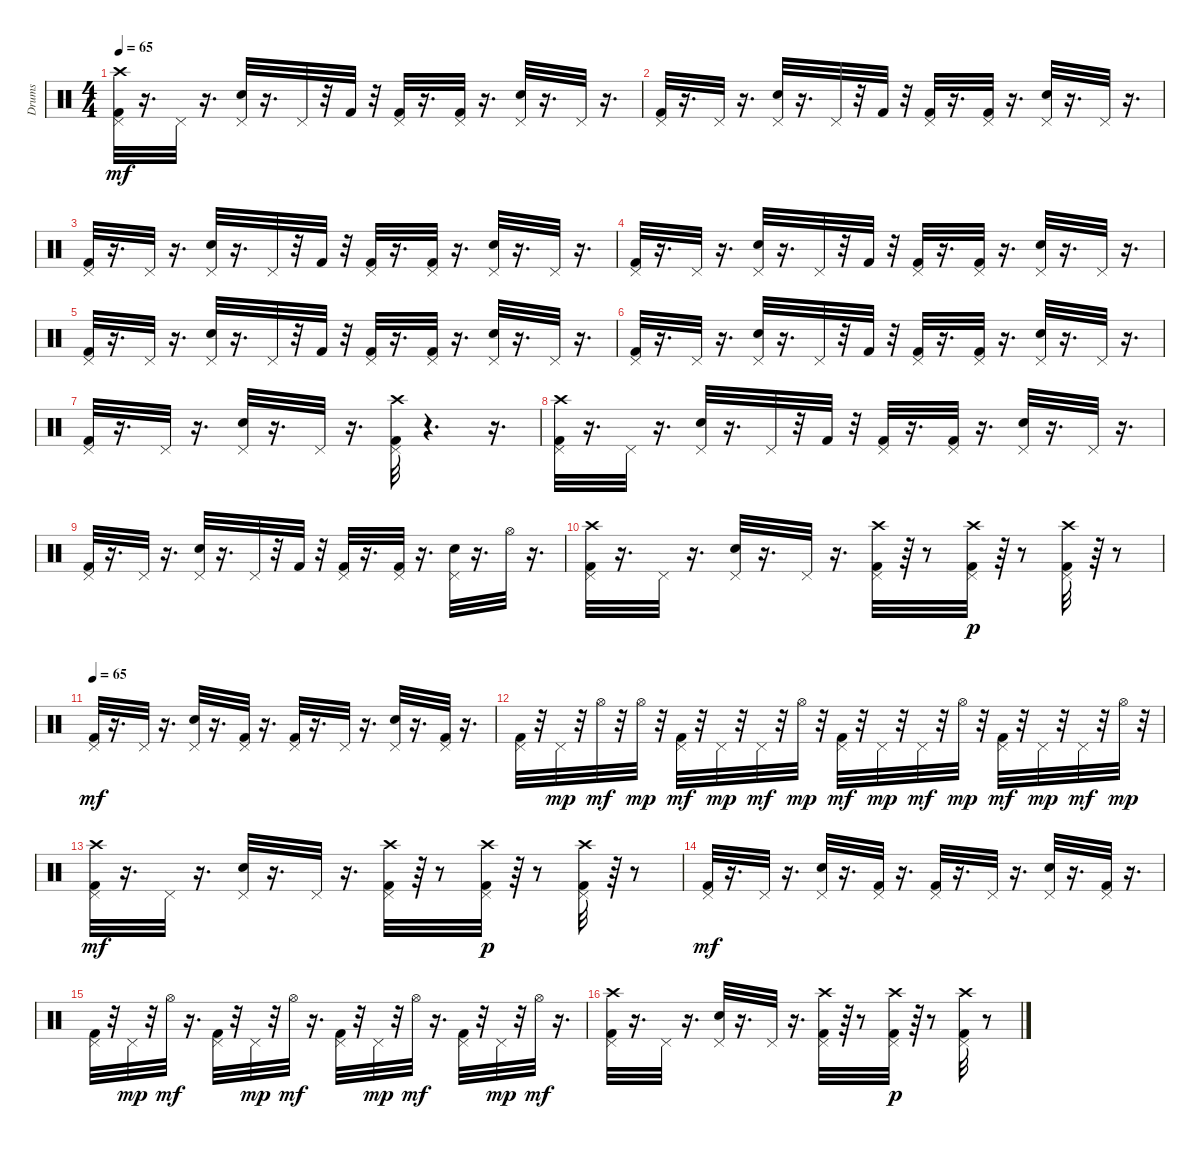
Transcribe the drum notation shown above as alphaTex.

\track ("Drums" "Drums") {instrument percussion}
\staff {score}
\articulation defaults
\ts (4 4)
\tempo 65
\clef neutral
\ks c
("Crash high (hit)" "Pedal Hi-Hat (hit)" "Kick (hit) 2").32{dy mf} r.16{d} "Pedal Hi-Hat (hit)".32 r.16{d} ("Snare (hit) 2" "Pedal Hi-Hat (hit)").32 r.16{d} "Pedal Hi-Hat (hit)".32 r.32 "Kick (hit) 2".32 r.32 ("Pedal Hi-Hat (hit)" "Kick (hit) 2").32 r.16{d} ("Pedal Hi-Hat (hit)" "Kick (hit) 2").32 r.16{d} ("Pedal Hi-Hat (hit)" "Snare (hit) 2").32 r.16{d} "Pedal Hi-Hat (hit)".32 r.16{d} |
("Pedal Hi-Hat (hit)" "Kick (hit) 2").32 r.16{d} "Pedal Hi-Hat (hit)".32 r.16{d} ("Snare (hit) 2" "Pedal Hi-Hat (hit)").32 r.16{d} "Pedal Hi-Hat (hit)".32 r.32 "Kick (hit) 2".32 r.32 ("Pedal Hi-Hat (hit)" "Kick (hit) 2").32 r.16{d} ("Pedal Hi-Hat (hit)" "Kick (hit) 2").32 r.16{d} ("Pedal Hi-Hat (hit)" "Snare (hit) 2").32 r.16{d} "Pedal Hi-Hat (hit)".32 r.16{d} |
("Pedal Hi-Hat (hit)" "Kick (hit) 2").32 r.16{d} "Pedal Hi-Hat (hit)".32 r.16{d} ("Snare (hit) 2" "Pedal Hi-Hat (hit)").32 r.16{d} "Pedal Hi-Hat (hit)".32 r.32 "Kick (hit) 2".32 r.32 ("Pedal Hi-Hat (hit)" "Kick (hit) 2").32 r.16{d} ("Pedal Hi-Hat (hit)" "Kick (hit) 2").32 r.16{d} ("Pedal Hi-Hat (hit)" "Snare (hit) 2").32 r.16{d} "Pedal Hi-Hat (hit)".32 r.16{d} |
("Pedal Hi-Hat (hit)" "Kick (hit) 2").32 r.16{d} "Pedal Hi-Hat (hit)".32 r.16{d} ("Snare (hit) 2" "Pedal Hi-Hat (hit)").32 r.16{d} "Pedal Hi-Hat (hit)".32 r.32 "Kick (hit) 2".32 r.32 ("Pedal Hi-Hat (hit)" "Kick (hit) 2").32 r.16{d} ("Pedal Hi-Hat (hit)" "Kick (hit) 2").32 r.16{d} ("Pedal Hi-Hat (hit)" "Snare (hit) 2").32 r.16{d} "Pedal Hi-Hat (hit)".32 r.16{d} |
("Pedal Hi-Hat (hit)" "Kick (hit) 2").32 r.16{d} "Pedal Hi-Hat (hit)".32 r.16{d} ("Snare (hit) 2" "Pedal Hi-Hat (hit)").32 r.16{d} "Pedal Hi-Hat (hit)".32 r.32 "Kick (hit) 2".32 r.32 ("Pedal Hi-Hat (hit)" "Kick (hit) 2").32 r.16{d} ("Pedal Hi-Hat (hit)" "Kick (hit) 2").32 r.16{d} ("Pedal Hi-Hat (hit)" "Snare (hit) 2").32 r.16{d} "Pedal Hi-Hat (hit)".32 r.16{d} |
("Pedal Hi-Hat (hit)" "Kick (hit) 2").32 r.16{d} "Pedal Hi-Hat (hit)".32 r.16{d} ("Snare (hit) 2" "Pedal Hi-Hat (hit)").32 r.16{d} "Pedal Hi-Hat (hit)".32 r.32 "Kick (hit) 2".32 r.32 ("Pedal Hi-Hat (hit)" "Kick (hit) 2").32 r.16{d} ("Pedal Hi-Hat (hit)" "Kick (hit) 2").32 r.16{d} ("Pedal Hi-Hat (hit)" "Snare (hit) 2").32 r.16{d} "Pedal Hi-Hat (hit)".32 r.16{d} |
("Pedal Hi-Hat (hit)" "Kick (hit) 2").32 r.16{d} "Pedal Hi-Hat (hit)".32 r.16{d} ("Snare (hit) 2" "Pedal Hi-Hat (hit)").32 r.16{d} "Pedal Hi-Hat (hit)".32 r.16{d} ("Crash high (hit)" "Pedal Hi-Hat (hit)" "Kick (hit) 2").32 r.4{d} r.16{d} |
("Crash high (hit)" "Pedal Hi-Hat (hit)" "Kick (hit) 2").32 r.16{d} "Pedal Hi-Hat (hit)".32 r.16{d} ("Snare (hit) 2" "Pedal Hi-Hat (hit)").32 r.16{d} "Pedal Hi-Hat (hit)".32 r.32 "Kick (hit) 2".32 r.32 ("Pedal Hi-Hat (hit)" "Kick (hit) 2").32 r.16{d} ("Pedal Hi-Hat (hit)" "Kick (hit) 2").32 r.16{d} ("Pedal Hi-Hat (hit)" "Snare (hit) 2").32 r.16{d} "Pedal Hi-Hat (hit)".32 r.16{d} |
("Pedal Hi-Hat (hit)" "Kick (hit) 2").32 r.16{d} "Pedal Hi-Hat (hit)".32 r.16{d} ("Snare (hit) 2" "Pedal Hi-Hat (hit)").32 r.16{d} "Pedal Hi-Hat (hit)".32 r.32 "Kick (hit) 2".32 r.32 ("Pedal Hi-Hat (hit)" "Kick (hit) 2").32 r.16{d} ("Pedal Hi-Hat (hit)" "Kick (hit) 2").32 r.16{d} ("Pedal Hi-Hat (hit)" "Snare (hit) 2").32 r.16{d} "Hi-Hat (open)".32 r.16{d} |
("Crash high (hit)" "Pedal Hi-Hat (hit)" "Kick (hit) 2").32 r.16{d} "Pedal Hi-Hat (hit)".32 r.16{d} ("Snare (hit) 2" "Pedal Hi-Hat (hit)").32 r.16{d} "Pedal Hi-Hat (hit)".32 r.16{d} ("Crash high (hit)" "Pedal Hi-Hat (hit)" "Kick (hit) 2").32 r.64 r.8 ("Kick (hit) 2" "Pedal Hi-Hat (hit)" "Crash high (hit)").32{dy p} r.64 r.8 ("Kick (hit) 2" "Pedal Hi-Hat (hit)" "Crash high (hit)").32 r.64 r.8 |
\tempo 65
("Pedal Hi-Hat (hit)" "Kick (hit) 2").32{dy mf} r.16{d} "Pedal Hi-Hat (hit)".32 r.16{d} ("Snare (hit) 2" "Pedal Hi-Hat (hit)").32 r.16{d} ("Kick (hit) 2" "Pedal Hi-Hat (hit)").32 r.16{d} ("Pedal Hi-Hat (hit)" "Kick (hit) 2").32 r.16{d} "Pedal Hi-Hat (hit)".32 r.16{d} ("Snare (hit) 2" "Pedal Hi-Hat (hit)").32 r.16{d} ("Kick (hit) 2" "Pedal Hi-Hat (hit)").32 r.16{d} |
("Kick (hit) 2" "Pedal Hi-Hat (hit)").32 r.32 "Pedal Hi-Hat (hit)".32{dy mp} r.32 "Hi-Hat (open)".32{dy mf} r.32 "Hi-Hat (open)".32{dy mp} r.32 ("Kick (hit) 2" "Pedal Hi-Hat (hit)").32{dy mf} r.32 "Pedal Hi-Hat (hit)".32{dy mp} r.32 "Pedal Hi-Hat (hit)".32{dy mf} r.32 "Hi-Hat (open)".32{dy mp} r.32 ("Kick (hit) 2" "Pedal Hi-Hat (hit)").32{dy mf} r.32 "Pedal Hi-Hat (hit)".32{dy mp} r.32 "Pedal Hi-Hat (hit)".32{dy mf} r.32 "Hi-Hat (open)".32{dy mp} r.32 ("Kick (hit) 2" "Pedal Hi-Hat (hit)").32{dy mf} r.32 "Pedal Hi-Hat (hit)".32{dy mp} r.32 "Pedal Hi-Hat (hit)".32{dy mf} r.32 "Hi-Hat (open)".32{dy mp} r.32 |
("Crash high (hit)" "Pedal Hi-Hat (hit)" "Kick (hit) 2").32{dy mf} r.16{d} "Pedal Hi-Hat (hit)".32 r.16{d} ("Snare (hit) 2" "Pedal Hi-Hat (hit)").32 r.16{d} "Pedal Hi-Hat (hit)".32 r.16{d} ("Crash high (hit)" "Pedal Hi-Hat (hit)" "Kick (hit) 2").32 r.64 r.8 ("Kick (hit) 2" "Pedal Hi-Hat (hit)" "Crash high (hit)").32{dy p} r.64 r.8 ("Kick (hit) 2" "Pedal Hi-Hat (hit)" "Crash high (hit)").32 r.64 r.8 |
("Pedal Hi-Hat (hit)" "Kick (hit) 2").32{dy mf} r.16{d} "Pedal Hi-Hat (hit)".32{volume 8} r.16{d} ("Snare (hit) 2" "Pedal Hi-Hat (hit)").32{volume 8} r.16{d} ("Kick (hit) 2" "Pedal Hi-Hat (hit)").32{volume 7} r.16{d} ("Pedal Hi-Hat (hit)" "Kick (hit) 2").32{volume 7} r.16{d} "Pedal Hi-Hat (hit)".32{volume 7} r.16{d} ("Snare (hit) 2" "Pedal Hi-Hat (hit)").32{volume 6} r.16{d} ("Kick (hit) 2" "Pedal Hi-Hat (hit)").32{volume 6} r.16{d} |
("Kick (hit) 2" "Pedal Hi-Hat (hit)").32{volume 6} r.32 "Pedal Hi-Hat (hit)".32{dy mp volume 5} r.32 "Hi-Hat (open)".32{dy mf volume 5} r.16{d} ("Kick (hit) 2" "Pedal Hi-Hat (hit)").32{volume 5} r.32 "Pedal Hi-Hat (hit)".32{dy mp volume 5} r.32 "Hi-Hat (open)".32{dy mf volume 5} r.16{d} ("Kick (hit) 2" "Pedal Hi-Hat (hit)").32{volume 4} r.32 "Pedal Hi-Hat (hit)".32{dy mp volume 4} r.32 "Hi-Hat (open)".32{dy mf volume 4} r.16{d} ("Kick (hit) 2" "Pedal Hi-Hat (hit)").32{volume 4} r.32 "Pedal Hi-Hat (hit)".32{dy mp volume 4} r.32 "Hi-Hat (open)".32{dy mf volume 3} r.16{d} |
("Crash high (hit)" "Pedal Hi-Hat (hit)" "Kick (hit) 2").32{volume 3} r.16{d} "Pedal Hi-Hat (hit)".32{volume 3} r.16{d} ("Snare (hit) 2" "Pedal Hi-Hat (hit)").32{volume 2} r.16{d} "Pedal Hi-Hat (hit)".32{volume 2} r.16{d} ("Crash high (hit)" "Pedal Hi-Hat (hit)" "Kick (hit) 2").32{volume 2} r.64 r.8 ("Kick (hit) 2" "Pedal Hi-Hat (hit)" "Crash high (hit)").32{dy p volume 1} r.64 r.8 ("Kick (hit) 2" "Pedal Hi-Hat (hit)" "Crash high (hit)").32{volume 1} r.8
